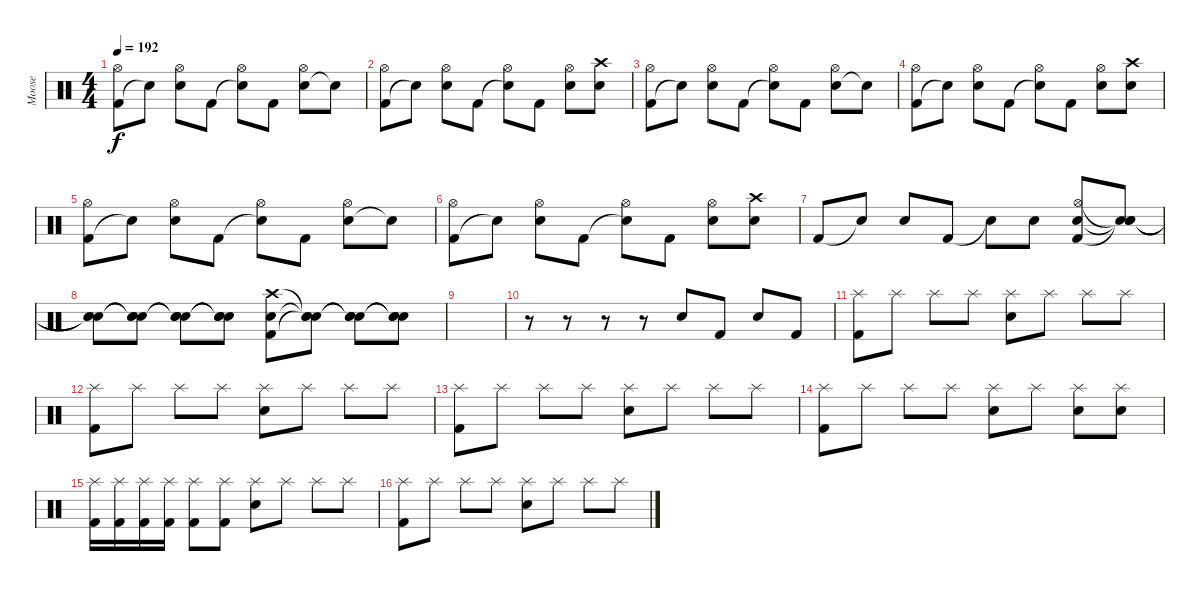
\track ("Moose" "Moose") {instrument percussion}
\staff {score}
\articulation defaults
\ts (4 4)
\tempo 192
\clef neutral
\ks c
("Kick (hit) 2" "Hi-Hat (open)").8{dy f} "Snare (hit)"{t}.8 ("Electric Snare (hit)" "Hi-Hat (open)").8 "Kick (hit) 2".8 ("Snare (hit)"{t} "Hi-Hat (open)").8 "Kick (hit) 2".8 ("Electric Snare (hit)" "Hi-Hat (open)").8 "Electric Snare (hit)"{t}.8 |
("Kick (hit) 2" "Hi-Hat (open)").8 "Snare (hit)"{t}.8 ("Electric Snare (hit)" "Hi-Hat (open)").8 "Kick (hit) 2".8 ("Snare (hit)"{t} "Hi-Hat (open)").8 "Kick (hit) 2".8 ("Electric Snare (hit)" "Hi-Hat (open)").8 ("Electric Snare (hit)" "Crash high (hit)").8 |
("Kick (hit) 2" "Hi-Hat (open)").8 "Snare (hit)"{t}.8 ("Electric Snare (hit)" "Hi-Hat (open)").8 "Kick (hit) 2".8 ("Snare (hit)"{t} "Hi-Hat (open)").8 "Kick (hit) 2".8 ("Electric Snare (hit)" "Hi-Hat (open)").8 "Electric Snare (hit)"{t}.8 |
("Kick (hit) 2" "Hi-Hat (open)").8 "Snare (hit)"{t}.8 ("Electric Snare (hit)" "Hi-Hat (open)").8 "Kick (hit) 2".8 ("Snare (hit)"{t} "Hi-Hat (open)").8 "Kick (hit) 2".8 ("Electric Snare (hit)" "Hi-Hat (open)").8 ("Electric Snare (hit)" "Crash high (hit)").8 |
("Kick (hit) 2" "Hi-Hat (open)").8 "Snare (hit)"{t}.8 ("Electric Snare (hit)" "Hi-Hat (open)").8 "Kick (hit) 2".8 ("Snare (hit)"{t} "Hi-Hat (open)").8 "Kick (hit) 2".8 ("Electric Snare (hit)" "Hi-Hat (open)").8 "Electric Snare (hit)"{t}.8 |
("Kick (hit) 2" "Hi-Hat (open)").8 "Snare (hit)"{t}.8 ("Electric Snare (hit)" "Hi-Hat (open)").8 "Kick (hit) 2".8 ("Snare (hit)"{t} "Hi-Hat (open)").8 "Kick (hit) 2".8 ("Electric Snare (hit)" "Hi-Hat (open)").8 ("Electric Snare (hit)" "Crash high (hit)").8 |
"Kick (hit) 2".8 "Snare (hit)"{t}.8 "Electric Snare (hit)".8 "Kick (hit) 2".8 "Snare (hit)"{t}.8 "Electric Snare (hit)".8 ("Kick (hit) 2" "Snare (hit) 2" "Hi-Hat (open)").8 ("Snare (hit)"{t} "Snare (hit)"{t} "Snare (hit)"{t}).8 |
("Snare (hit)"{t} "Snare (hit)"{t} "Snare (hit)"{t}).8 ("Snare (hit)"{t} "Snare (hit)"{t} "Snare (hit)"{t}).8 ("Snare (hit)"{t} "Snare (hit)"{t} "Snare (hit)"{t}).8 ("Snare (hit)"{t} "Snare (hit)"{t} "Snare (hit)"{t}).8 ("Kick (hit) 2" "Electric Snare (hit)" "Crash high (hit)").8 ("Snare (hit)"{t} "Snare (hit)"{t} "Snare (hit)"{t}).8 ("Snare (hit)"{t} "Snare (hit)"{t} "Snare (hit)"{t}).8 ("Snare (hit)"{t} "Snare (hit)"{t} "Snare (hit)"{t}).8 |
|
r.8 r.8 r.8 r.8 "Snare (hit) 2".8 "Kick (hit) 2".8 "Snare (hit) 2".8 "Kick (hit) 2".8 |
("Splash (hit)" "Kick (hit) 2").8 "Splash (hit)".8 "Splash (hit)".8 "Splash (hit)".8 ("Splash (hit)" "Electric Snare (hit)").8 "Splash (hit)".8 "Splash (hit)".8 "Splash (hit)".8 |
("Splash (hit)" "Kick (hit) 2").8 "Splash (hit)".8 "Splash (hit)".8 "Splash (hit)".8 ("Splash (hit)" "Electric Snare (hit)").8 "Splash (hit)".8 "Splash (hit)".8 "Splash (hit)".8 |
("Splash (hit)" "Kick (hit) 2").8 "Splash (hit)".8 "Splash (hit)".8 "Splash (hit)".8 ("Splash (hit)" "Electric Snare (hit)").8 "Splash (hit)".8 "Splash (hit)".8 "Splash (hit)".8 |
("Splash (hit)" "Kick (hit) 2").8 "Splash (hit)".8 "Splash (hit)".8 "Splash (hit)".8 ("Splash (hit)" "Electric Snare (hit)").8 "Splash (hit)".8 ("Splash (hit)" "Electric Snare (hit)").8 ("Splash (hit)" "Electric Snare (hit)").8 |
("Splash (hit)" "Kick (hit) 2").16 ("Splash (hit)" "Kick (hit) 2").16 ("Splash (hit)" "Kick (hit) 2").16 ("Splash (hit)" "Kick (hit) 2").16 ("Splash (hit)" "Kick (hit) 2").8 ("Splash (hit)" "Kick (hit) 2").8 ("Splash (hit)" "Electric Snare (hit)").8 "Splash (hit)".8 "Splash (hit)".8 "Splash (hit)".8 |
("Splash (hit)" "Kick (hit) 2").8 "Splash (hit)".8 "Splash (hit)".8 "Splash (hit)".8 ("Splash (hit)" "Electric Snare (hit)").8 "Splash (hit)".8 "Splash (hit)".8 "Splash (hit)".8
